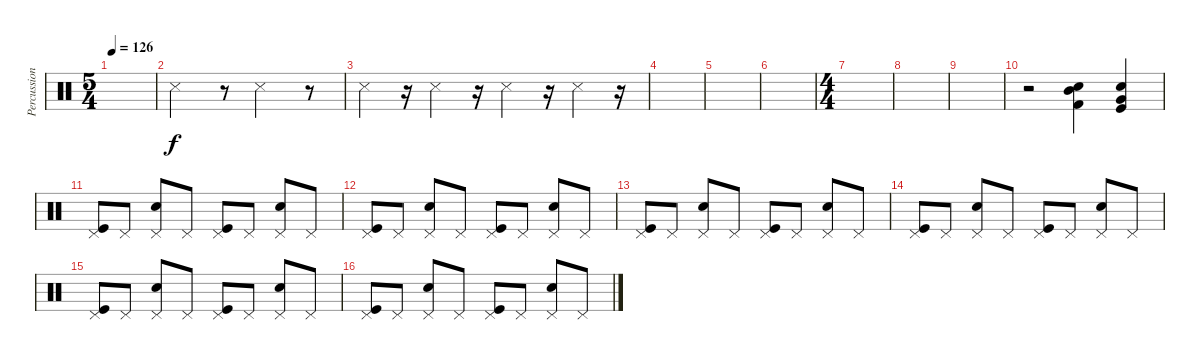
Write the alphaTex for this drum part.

\track ("Percussion" "Percussion") {instrument percussion}
\staff {score}
\articulation defaults
\ts (5 4)
\tempo 126
\clef neutral
\ks c
|
"Snare (side stick) 3".2 r.8 "Snare (side stick) 3".2 r.8 |
"Snare (side stick) 3".4 r.16 "Snare (side stick) 3".4 r.16 "Snare (side stick) 3".4 r.16 "Snare (side stick) 3".4 r.16 |
|
|
|
\ts (4 4)
|
|
|
r.2 ("Snare (hit) 2" "Kick (hit) 2" "Mid Tom (hit)").4 ("Snare (hit) 2" "Kick (hit)" "Very Low Tom (hit)").4 |
("Pedal Hi-Hat (hit)" "Kick (hit)").8 "Pedal Hi-Hat (hit)".8 ("Pedal Hi-Hat (hit)" "Snare (hit) 2").8 "Pedal Hi-Hat (hit)".8 ("Pedal Hi-Hat (hit)" "Kick (hit)").8 "Pedal Hi-Hat (hit)".8 ("Pedal Hi-Hat (hit)" "Snare (hit) 2").8 "Pedal Hi-Hat (hit)".8 |
("Pedal Hi-Hat (hit)" "Kick (hit)").8 "Pedal Hi-Hat (hit)".8 ("Pedal Hi-Hat (hit)" "Snare (hit) 2").8 "Pedal Hi-Hat (hit)".8 ("Pedal Hi-Hat (hit)" "Kick (hit)").8 "Pedal Hi-Hat (hit)".8 ("Pedal Hi-Hat (hit)" "Snare (hit) 2").8 "Pedal Hi-Hat (hit)".8 |
("Pedal Hi-Hat (hit)" "Kick (hit)").8 "Pedal Hi-Hat (hit)".8 ("Pedal Hi-Hat (hit)" "Snare (hit) 2").8 "Pedal Hi-Hat (hit)".8 ("Pedal Hi-Hat (hit)" "Kick (hit)").8 "Pedal Hi-Hat (hit)".8 ("Pedal Hi-Hat (hit)" "Snare (hit) 2").8 "Pedal Hi-Hat (hit)".8 |
("Pedal Hi-Hat (hit)" "Kick (hit)").8 "Pedal Hi-Hat (hit)".8 ("Pedal Hi-Hat (hit)" "Snare (hit) 2").8 "Pedal Hi-Hat (hit)".8 ("Pedal Hi-Hat (hit)" "Kick (hit)").8 "Pedal Hi-Hat (hit)".8 ("Pedal Hi-Hat (hit)" "Snare (hit) 2").8 "Pedal Hi-Hat (hit)".8 |
("Pedal Hi-Hat (hit)" "Kick (hit)").8 "Pedal Hi-Hat (hit)".8 ("Pedal Hi-Hat (hit)" "Snare (hit) 2").8 "Pedal Hi-Hat (hit)".8 ("Pedal Hi-Hat (hit)" "Kick (hit)").8 "Pedal Hi-Hat (hit)".8 ("Pedal Hi-Hat (hit)" "Snare (hit) 2").8 "Pedal Hi-Hat (hit)".8 |
("Pedal Hi-Hat (hit)" "Kick (hit)").8 "Pedal Hi-Hat (hit)".8 ("Pedal Hi-Hat (hit)" "Snare (hit) 2").8 "Pedal Hi-Hat (hit)".8 ("Pedal Hi-Hat (hit)" "Kick (hit)").8 "Pedal Hi-Hat (hit)".8 ("Pedal Hi-Hat (hit)" "Snare (hit) 2").8 "Pedal Hi-Hat (hit)".8
